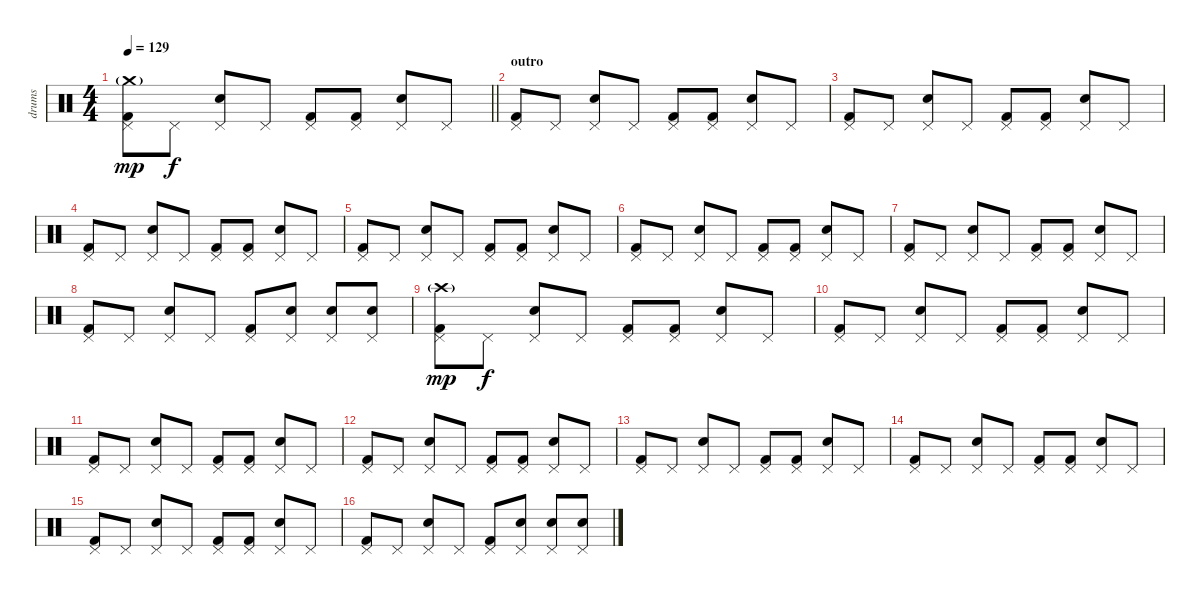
\track ("drums" "drums") {instrument percussion}
\staff {score}
\articulation defaults
\ts (4 4)
\tempo 129
\clef neutral
\barLineRight lightlight
\ks c
("Kick (hit) 2" "Pedal Hi-Hat (hit)" "Crash medium (hit)"{g}).8{dy mp} "Pedal Hi-Hat (hit)".8{dy f} ("Electric Snare (hit)" "Pedal Hi-Hat (hit)").8 "Pedal Hi-Hat (hit)".8 ("Kick (hit) 2" "Pedal Hi-Hat (hit)").8 ("Kick (hit) 2" "Pedal Hi-Hat (hit)").8 ("Electric Snare (hit)" "Pedal Hi-Hat (hit)").8 "Pedal Hi-Hat (hit)".8 |
\section ("" "outro")
("Kick (hit) 2" "Pedal Hi-Hat (hit)").8 "Pedal Hi-Hat (hit)".8 ("Electric Snare (hit)" "Pedal Hi-Hat (hit)").8 "Pedal Hi-Hat (hit)".8 ("Kick (hit) 2" "Pedal Hi-Hat (hit)").8 ("Kick (hit) 2" "Pedal Hi-Hat (hit)").8 ("Electric Snare (hit)" "Pedal Hi-Hat (hit)").8 "Pedal Hi-Hat (hit)".8 |
("Kick (hit) 2" "Pedal Hi-Hat (hit)").8 "Pedal Hi-Hat (hit)".8 ("Electric Snare (hit)" "Pedal Hi-Hat (hit)").8 "Pedal Hi-Hat (hit)".8 ("Kick (hit) 2" "Pedal Hi-Hat (hit)").8 ("Kick (hit) 2" "Pedal Hi-Hat (hit)").8 ("Electric Snare (hit)" "Pedal Hi-Hat (hit)").8 "Pedal Hi-Hat (hit)".8 |
("Kick (hit) 2" "Pedal Hi-Hat (hit)").8 "Pedal Hi-Hat (hit)".8 ("Electric Snare (hit)" "Pedal Hi-Hat (hit)").8 "Pedal Hi-Hat (hit)".8 ("Kick (hit) 2" "Pedal Hi-Hat (hit)").8 ("Kick (hit) 2" "Pedal Hi-Hat (hit)").8 ("Electric Snare (hit)" "Pedal Hi-Hat (hit)").8 "Pedal Hi-Hat (hit)".8 |
("Kick (hit) 2" "Pedal Hi-Hat (hit)").8 "Pedal Hi-Hat (hit)".8 ("Electric Snare (hit)" "Pedal Hi-Hat (hit)").8 "Pedal Hi-Hat (hit)".8 ("Kick (hit) 2" "Pedal Hi-Hat (hit)").8 ("Kick (hit) 2" "Pedal Hi-Hat (hit)").8 ("Electric Snare (hit)" "Pedal Hi-Hat (hit)").8 "Pedal Hi-Hat (hit)".8 |
("Kick (hit) 2" "Pedal Hi-Hat (hit)").8 "Pedal Hi-Hat (hit)".8 ("Electric Snare (hit)" "Pedal Hi-Hat (hit)").8 "Pedal Hi-Hat (hit)".8 ("Kick (hit) 2" "Pedal Hi-Hat (hit)").8 ("Kick (hit) 2" "Pedal Hi-Hat (hit)").8 ("Electric Snare (hit)" "Pedal Hi-Hat (hit)").8 "Pedal Hi-Hat (hit)".8 |
("Kick (hit) 2" "Pedal Hi-Hat (hit)").8 "Pedal Hi-Hat (hit)".8 ("Electric Snare (hit)" "Pedal Hi-Hat (hit)").8 "Pedal Hi-Hat (hit)".8 ("Kick (hit) 2" "Pedal Hi-Hat (hit)").8 ("Kick (hit) 2" "Pedal Hi-Hat (hit)").8 ("Electric Snare (hit)" "Pedal Hi-Hat (hit)").8 "Pedal Hi-Hat (hit)".8 |
("Kick (hit) 2" "Pedal Hi-Hat (hit)").8 "Pedal Hi-Hat (hit)".8 ("Electric Snare (hit)" "Pedal Hi-Hat (hit)").8 "Pedal Hi-Hat (hit)".8 ("Kick (hit) 2" "Pedal Hi-Hat (hit)").8 ("Electric Snare (hit)" "Pedal Hi-Hat (hit)").8 ("Electric Snare (hit)" "Pedal Hi-Hat (hit)").8 ("Electric Snare (hit)" "Pedal Hi-Hat (hit)").8 |
("Kick (hit) 2" "Pedal Hi-Hat (hit)" "Crash high (hit)"{g}).8{dy mp} "Pedal Hi-Hat (hit)".8{dy f} ("Electric Snare (hit)" "Pedal Hi-Hat (hit)").8 "Pedal Hi-Hat (hit)".8 ("Kick (hit) 2" "Pedal Hi-Hat (hit)").8 ("Kick (hit) 2" "Pedal Hi-Hat (hit)").8 ("Electric Snare (hit)" "Pedal Hi-Hat (hit)").8 "Pedal Hi-Hat (hit)".8 |
("Kick (hit) 2" "Pedal Hi-Hat (hit)").8 "Pedal Hi-Hat (hit)".8 ("Electric Snare (hit)" "Pedal Hi-Hat (hit)").8 "Pedal Hi-Hat (hit)".8 ("Kick (hit) 2" "Pedal Hi-Hat (hit)").8 ("Kick (hit) 2" "Pedal Hi-Hat (hit)").8 ("Electric Snare (hit)" "Pedal Hi-Hat (hit)").8 "Pedal Hi-Hat (hit)".8 |
("Kick (hit) 2" "Pedal Hi-Hat (hit)").8 "Pedal Hi-Hat (hit)".8 ("Electric Snare (hit)" "Pedal Hi-Hat (hit)").8 "Pedal Hi-Hat (hit)".8 ("Kick (hit) 2" "Pedal Hi-Hat (hit)").8 ("Kick (hit) 2" "Pedal Hi-Hat (hit)").8 ("Electric Snare (hit)" "Pedal Hi-Hat (hit)").8 "Pedal Hi-Hat (hit)".8 |
("Kick (hit) 2" "Pedal Hi-Hat (hit)").8 "Pedal Hi-Hat (hit)".8 ("Electric Snare (hit)" "Pedal Hi-Hat (hit)").8 "Pedal Hi-Hat (hit)".8 ("Kick (hit) 2" "Pedal Hi-Hat (hit)").8 ("Kick (hit) 2" "Pedal Hi-Hat (hit)").8 ("Electric Snare (hit)" "Pedal Hi-Hat (hit)").8 "Pedal Hi-Hat (hit)".8 |
("Kick (hit) 2" "Pedal Hi-Hat (hit)").8 "Pedal Hi-Hat (hit)".8 ("Electric Snare (hit)" "Pedal Hi-Hat (hit)").8 "Pedal Hi-Hat (hit)".8 ("Kick (hit) 2" "Pedal Hi-Hat (hit)").8 ("Kick (hit) 2" "Pedal Hi-Hat (hit)").8 ("Electric Snare (hit)" "Pedal Hi-Hat (hit)").8 "Pedal Hi-Hat (hit)".8 |
("Kick (hit) 2" "Pedal Hi-Hat (hit)").8 "Pedal Hi-Hat (hit)".8 ("Electric Snare (hit)" "Pedal Hi-Hat (hit)").8 "Pedal Hi-Hat (hit)".8 ("Kick (hit) 2" "Pedal Hi-Hat (hit)").8 ("Kick (hit) 2" "Pedal Hi-Hat (hit)").8 ("Electric Snare (hit)" "Pedal Hi-Hat (hit)").8 "Pedal Hi-Hat (hit)".8 |
("Kick (hit) 2" "Pedal Hi-Hat (hit)").8 "Pedal Hi-Hat (hit)".8 ("Electric Snare (hit)" "Pedal Hi-Hat (hit)").8 "Pedal Hi-Hat (hit)".8 ("Kick (hit) 2" "Pedal Hi-Hat (hit)").8 ("Kick (hit) 2" "Pedal Hi-Hat (hit)").8 ("Electric Snare (hit)" "Pedal Hi-Hat (hit)").8 "Pedal Hi-Hat (hit)".8 |
("Kick (hit) 2" "Pedal Hi-Hat (hit)").8 "Pedal Hi-Hat (hit)".8 ("Electric Snare (hit)" "Pedal Hi-Hat (hit)").8 "Pedal Hi-Hat (hit)".8 ("Kick (hit) 2" "Pedal Hi-Hat (hit)").8 ("Electric Snare (hit)" "Pedal Hi-Hat (hit)").8 ("Electric Snare (hit)" "Pedal Hi-Hat (hit)").8 ("Electric Snare (hit)" "Pedal Hi-Hat (hit)").8
